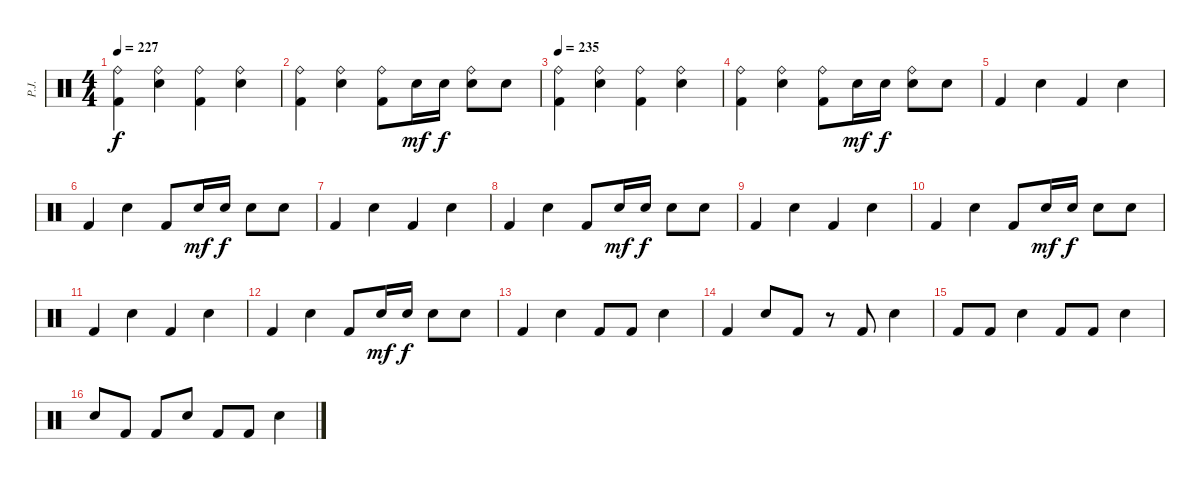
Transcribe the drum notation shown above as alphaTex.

\track ("P.J." "P.J.") {instrument percussion}
\staff {score}
\articulation defaults
\ts (4 4)
\tempo 227
\clef neutral
\ks c
("Ride (bell)" "Kick (hit) 2").4{dy f} ("Ride (bell)" "Electric Snare (hit)").4 ("Ride (bell)" "Kick (hit) 2").4 ("Ride (bell)" "Electric Snare (hit)").4 |
("Ride (bell)" "Kick (hit) 2").4 ("Ride (bell)" "Electric Snare (hit)").4 ("Ride (bell)" "Kick (hit) 2").8 "Electric Snare (hit)".16{dy mf} "Electric Snare (hit)".16{dy f} ("Ride (bell)" "Electric Snare (hit)").8 "Electric Snare (hit)".8 |
\tempo 235
("Ride (bell)" "Kick (hit) 2").4 ("Ride (bell)" "Electric Snare (hit)").4 ("Ride (bell)" "Kick (hit) 2").4 ("Ride (bell)" "Electric Snare (hit)").4 |
("Ride (bell)" "Kick (hit) 2").4 ("Ride (bell)" "Electric Snare (hit)").4 ("Ride (bell)" "Kick (hit) 2").8 "Electric Snare (hit)".16{dy mf} "Electric Snare (hit)".16{dy f} ("Ride (bell)" "Electric Snare (hit)").8 "Electric Snare (hit)".8 |
"Kick (hit) 2".4 "Electric Snare (hit)".4 "Kick (hit) 2".4 "Electric Snare (hit)".4 |
"Kick (hit) 2".4 "Electric Snare (hit)".4 "Kick (hit) 2".8 "Electric Snare (hit)".16{dy mf} "Electric Snare (hit)".16{dy f} "Electric Snare (hit)".8 "Electric Snare (hit)".8 |
"Kick (hit) 2".4 "Electric Snare (hit)".4 "Kick (hit) 2".4 "Electric Snare (hit)".4 |
"Kick (hit) 2".4 "Electric Snare (hit)".4 "Kick (hit) 2".8 "Electric Snare (hit)".16{dy mf} "Electric Snare (hit)".16{dy f} "Electric Snare (hit)".8 "Electric Snare (hit)".8 |
"Kick (hit) 2".4 "Electric Snare (hit)".4 "Kick (hit) 2".4 "Electric Snare (hit)".4 |
"Kick (hit) 2".4 "Electric Snare (hit)".4 "Kick (hit) 2".8 "Electric Snare (hit)".16{dy mf} "Electric Snare (hit)".16{dy f} "Electric Snare (hit)".8 "Electric Snare (hit)".8 |
"Kick (hit) 2".4 "Electric Snare (hit)".4 "Kick (hit) 2".4 "Electric Snare (hit)".4 |
"Kick (hit) 2".4 "Electric Snare (hit)".4 "Kick (hit) 2".8 "Electric Snare (hit)".16{dy mf} "Electric Snare (hit)".16{dy f} "Electric Snare (hit)".8 "Electric Snare (hit)".8 |
"Kick (hit) 2".4 "Electric Snare (hit)".4 "Kick (hit) 2".8 "Kick (hit) 2".8 "Electric Snare (hit)".4 |
"Kick (hit) 2".4 "Electric Snare (hit)".8 "Kick (hit) 2".8 r.8 "Kick (hit) 2".8 "Electric Snare (hit)".4 |
"Kick (hit) 2".8 "Kick (hit) 2".8 "Electric Snare (hit)".4 "Kick (hit) 2".8 "Kick (hit) 2".8 "Electric Snare (hit)".4 |
"Electric Snare (hit)".8 "Kick (hit) 2".8 "Kick (hit) 2".8 "Electric Snare (hit)".8 "Kick (hit) 2".8 "Kick (hit) 2".8 "Electric Snare (hit)".4
